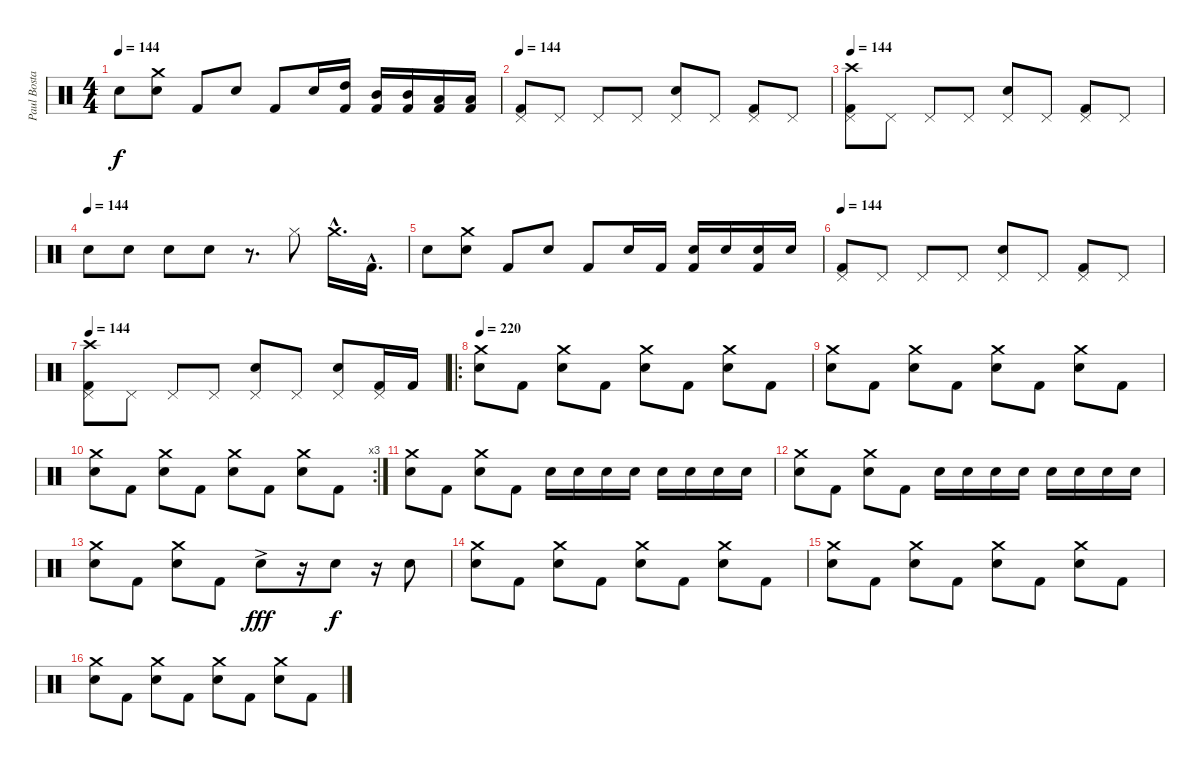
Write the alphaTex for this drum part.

\track ("Paul Bostaph" "Paul Bosta") {instrument percussion}
\staff {score}
\articulation defaults
\ts (4 4)
\tempo 144
\clef neutral
\ks c "Snare (hit) 2".8{dy f}
("Snare (hit) 2" "Crash medium (hit)").8 "Kick (hit) 2".8 "Snare (hit) 2".8 "Kick (hit) 2".8 "Snare (hit) 2".16 ("Kick (hit) 2" "High Tom (hit)").16 ("Kick (hit) 2" "Mid Tom (hit)").16 ("Kick (hit) 2" "Mid Tom (hit)").16 ("Kick (hit) 2" "Low Tom (hit)").16 ("Kick (hit) 2" "Low Tom (hit)").16 |
\tempo 144
("Kick (hit) 2" "Pedal Hi-Hat (hit)").8 "Pedal Hi-Hat (hit)".8 "Pedal Hi-Hat (hit)".8 "Pedal Hi-Hat (hit)".8 ("Snare (hit) 2" "Pedal Hi-Hat (hit)").8 "Pedal Hi-Hat (hit)".8 ("Kick (hit) 2" "Pedal Hi-Hat (hit)").8 "Pedal Hi-Hat (hit)".8 |
\tempo 144
("Crash high (hit)" "Kick (hit) 2" "Pedal Hi-Hat (hit)").8 "Pedal Hi-Hat (hit)".8 "Pedal Hi-Hat (hit)".8 "Pedal Hi-Hat (hit)".8 ("Snare (hit) 2" "Pedal Hi-Hat (hit)").8 "Pedal Hi-Hat (hit)".8 ("Kick (hit) 2" "Pedal Hi-Hat (hit)").8 "Pedal Hi-Hat (hit)".8 |
\tempo (144)
"Snare (hit) 2".8 "Snare (hit) 2".8 "Snare (hit) 2".8 "Snare (hit) 2".8 r.8{d} "Hi-Hat (closed)".8 "Crash medium (hit)"{hac}.16{d} "Kick (hit) 2"{hac}.16{d} |
"Snare (hit) 2".8 ("Snare (hit) 2" "Crash medium (hit)").8 "Kick (hit) 2".8 "Snare (hit) 2".8 "Kick (hit) 2".8 "Snare (hit) 2".16 "Kick (hit) 2".16 ("Snare (hit) 2" "Kick (hit) 2").16 "Snare (hit) 2".16 ("Snare (hit) 2" "Kick (hit) 2").16 "Snare (hit) 2".16 |
\tempo 144
("Kick (hit) 2" "Pedal Hi-Hat (hit)").8 "Pedal Hi-Hat (hit)".8 "Pedal Hi-Hat (hit)".8 "Pedal Hi-Hat (hit)".8 ("Snare (hit) 2" "Pedal Hi-Hat (hit)").8 "Pedal Hi-Hat (hit)".8 ("Kick (hit) 2" "Pedal Hi-Hat (hit)").8 "Pedal Hi-Hat (hit)".8 |
\tempo 144
("Crash high (hit)" "Kick (hit) 2" "Pedal Hi-Hat (hit)").8 "Pedal Hi-Hat (hit)".8 "Pedal Hi-Hat (hit)".8 "Pedal Hi-Hat (hit)".8 ("Snare (hit) 2" "Pedal Hi-Hat (hit)").8 "Pedal Hi-Hat (hit)".8 ("Snare (hit) 2" "Pedal Hi-Hat (hit)").8 ("Kick (hit) 2" "Pedal Hi-Hat (hit)").16 "Kick (hit) 2".16 |
\ro
\tempo 220
("Snare (hit) 2" "Crash medium (hit)").8 "Kick (hit) 2".8 ("Snare (hit) 2" "Crash medium (hit)").8 "Kick (hit) 2".8 ("Snare (hit) 2" "Crash medium (hit)").8 "Kick (hit) 2".8 ("Snare (hit) 2" "Crash medium (hit)").8 "Kick (hit) 2".8 |
("Snare (hit) 2" "Crash medium (hit)").8 "Kick (hit) 2".8 ("Snare (hit) 2" "Crash medium (hit)").8 "Kick (hit) 2".8 ("Snare (hit) 2" "Crash medium (hit)").8 "Kick (hit) 2".8 ("Snare (hit) 2" "Crash medium (hit)").8 "Kick (hit) 2".8 |
\rc 3
("Snare (hit) 2" "Crash medium (hit)").8 "Kick (hit) 2".8 ("Snare (hit) 2" "Crash medium (hit)").8 "Kick (hit) 2".8 ("Snare (hit) 2" "Crash medium (hit)").8 "Kick (hit) 2".8 ("Snare (hit) 2" "Crash medium (hit)").8 "Kick (hit) 2".8 |
("Snare (hit) 2" "Crash medium (hit)").8 "Kick (hit) 2".8 ("Snare (hit) 2" "Crash medium (hit)").8 "Kick (hit) 2".8 "Snare (hit) 2".16 "Snare (hit) 2".16 "Snare (hit) 2".16 "Snare (hit) 2".16 "Snare (hit) 2".16 "Snare (hit) 2".16 "Snare (hit) 2".16 "Snare (hit) 2".16 |
("Snare (hit) 2" "Crash medium (hit)").8 "Kick (hit) 2".8 ("Snare (hit) 2" "Crash medium (hit)").8 "Kick (hit) 2".8 "Snare (hit) 2".16 "Snare (hit) 2".16 "Snare (hit) 2".16 "Snare (hit) 2".16 "Snare (hit) 2".16 "Snare (hit) 2".16 "Snare (hit) 2".16 "Snare (hit) 2".16 |
("Snare (hit) 2" "Crash medium (hit)").8 "Kick (hit) 2".8 ("Snare (hit) 2" "Crash medium (hit)").8 "Kick (hit) 2".8 "Snare (hit) 2"{ac}.8{dy fff} r.16 "Snare (hit) 2".8{dy f} r.16 "Snare (hit) 2".8 |
("Snare (hit) 2" "Crash medium (hit)").8 "Kick (hit) 2".8 ("Snare (hit) 2" "Crash medium (hit)").8 "Kick (hit) 2".8 ("Snare (hit) 2" "Crash medium (hit)").8 "Kick (hit) 2".8 ("Snare (hit) 2" "Crash medium (hit)").8 "Kick (hit) 2".8 |
("Snare (hit) 2" "Crash medium (hit)").8 "Kick (hit) 2".8 ("Snare (hit) 2" "Crash medium (hit)").8 "Kick (hit) 2".8 ("Snare (hit) 2" "Crash medium (hit)").8 "Kick (hit) 2".8 ("Snare (hit) 2" "Crash medium (hit)").8 "Kick (hit) 2".8 |
("Snare (hit) 2" "Crash medium (hit)").8 "Kick (hit) 2".8 ("Snare (hit) 2" "Crash medium (hit)").8 "Kick (hit) 2".8 ("Snare (hit) 2" "Crash medium (hit)").8 "Kick (hit) 2".8 ("Snare (hit) 2" "Crash medium (hit)").8 "Kick (hit) 2".8
